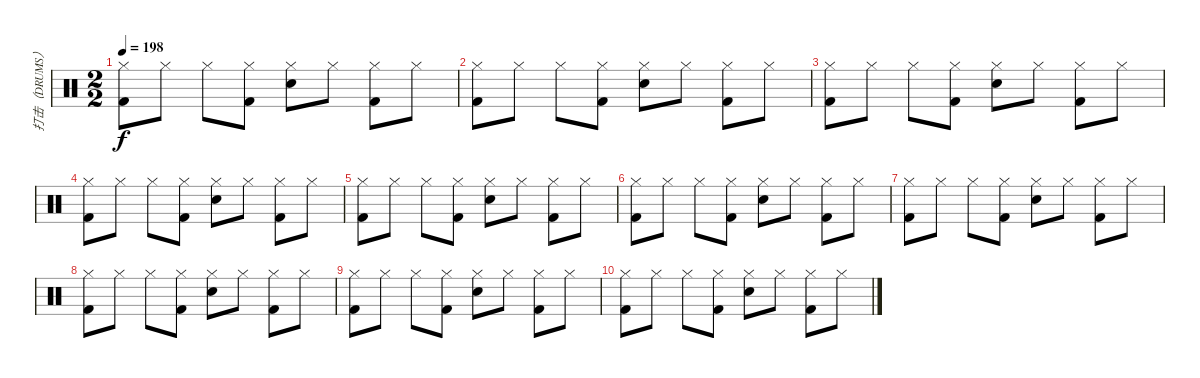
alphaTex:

\track ("打击（DRUMS）" "打击（DRUMS）") {instrument percussion}
\staff {score}
\articulation defaults
\ts (2 2)
\tempo 198
\clef neutral
\ks c
("Kick (hit) 2" "Hi-Hat (closed)").8{dy f} "Hi-Hat (closed)".8 "Hi-Hat (closed)".8 ("Kick (hit) 2" "Hi-Hat (closed)").8 ("Electric Snare (hit)" "Hi-Hat (closed)").8 "Hi-Hat (closed)".8 ("Kick (hit) 2" "Hi-Hat (closed)").8 "Hi-Hat (closed)".8 |
("Kick (hit) 2" "Hi-Hat (closed)").8 "Hi-Hat (closed)".8 "Hi-Hat (closed)".8 ("Kick (hit) 2" "Hi-Hat (closed)").8 ("Electric Snare (hit)" "Hi-Hat (closed)").8 "Hi-Hat (closed)".8 ("Kick (hit) 2" "Hi-Hat (closed)").8 "Hi-Hat (closed)".8 |
("Kick (hit) 2" "Hi-Hat (closed)").8 "Hi-Hat (closed)".8 "Hi-Hat (closed)".8 ("Kick (hit) 2" "Hi-Hat (closed)").8 ("Electric Snare (hit)" "Hi-Hat (closed)").8 "Hi-Hat (closed)".8 ("Kick (hit) 2" "Hi-Hat (closed)").8 "Hi-Hat (closed)".8 |
("Kick (hit) 2" "Hi-Hat (closed)").8 "Hi-Hat (closed)".8 "Hi-Hat (closed)".8 ("Kick (hit) 2" "Hi-Hat (closed)").8 ("Electric Snare (hit)" "Hi-Hat (closed)").8 "Hi-Hat (closed)".8 ("Kick (hit) 2" "Hi-Hat (closed)").8 "Hi-Hat (closed)".8 |
("Kick (hit) 2" "Hi-Hat (closed)").8 "Hi-Hat (closed)".8 "Hi-Hat (closed)".8 ("Kick (hit) 2" "Hi-Hat (closed)").8 ("Electric Snare (hit)" "Hi-Hat (closed)").8 "Hi-Hat (closed)".8 ("Kick (hit) 2" "Hi-Hat (closed)").8 "Hi-Hat (closed)".8 |
("Kick (hit) 2" "Hi-Hat (closed)").8 "Hi-Hat (closed)".8 "Hi-Hat (closed)".8 ("Kick (hit) 2" "Hi-Hat (closed)").8 ("Electric Snare (hit)" "Hi-Hat (closed)").8 "Hi-Hat (closed)".8 ("Kick (hit) 2" "Hi-Hat (closed)").8 "Hi-Hat (closed)".8 |
("Kick (hit) 2" "Hi-Hat (closed)").8 "Hi-Hat (closed)".8 "Hi-Hat (closed)".8 ("Kick (hit) 2" "Hi-Hat (closed)").8 ("Electric Snare (hit)" "Hi-Hat (closed)").8 "Hi-Hat (closed)".8 ("Kick (hit) 2" "Hi-Hat (closed)").8 "Hi-Hat (closed)".8 |
("Kick (hit) 2" "Hi-Hat (closed)").8 "Hi-Hat (closed)".8 "Hi-Hat (closed)".8 ("Kick (hit) 2" "Hi-Hat (closed)").8 ("Electric Snare (hit)" "Hi-Hat (closed)").8 "Hi-Hat (closed)".8 ("Kick (hit) 2" "Hi-Hat (closed)").8 "Hi-Hat (closed)".8 |
("Kick (hit) 2" "Hi-Hat (closed)").8 "Hi-Hat (closed)".8 "Hi-Hat (closed)".8 ("Kick (hit) 2" "Hi-Hat (closed)").8 ("Electric Snare (hit)" "Hi-Hat (closed)").8 "Hi-Hat (closed)".8 ("Kick (hit) 2" "Hi-Hat (closed)").8 "Hi-Hat (closed)".8 |
("Kick (hit) 2" "Hi-Hat (closed)").8 "Hi-Hat (closed)".8 "Hi-Hat (closed)".8 ("Kick (hit) 2" "Hi-Hat (closed)").8 ("Electric Snare (hit)" "Hi-Hat (closed)").8 "Hi-Hat (closed)".8 ("Kick (hit) 2" "Hi-Hat (closed)").8 "Hi-Hat (closed)".8
